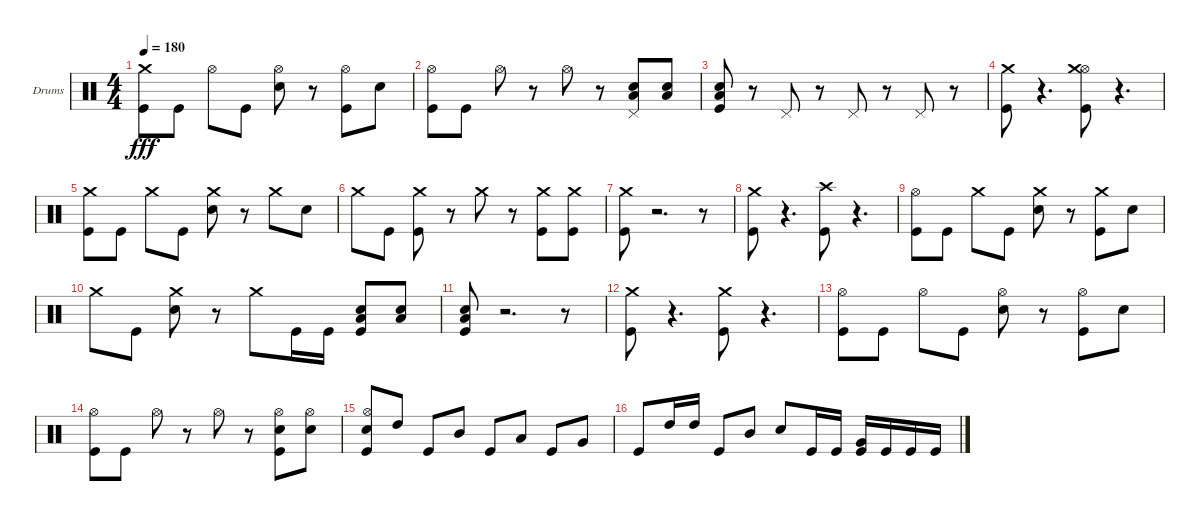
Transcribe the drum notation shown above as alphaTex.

\bracketExtendMode groupsimilarinstruments
\firstSystemTrackNameOrientation horizontal
\otherSystemsTrackNameOrientation horizontal
\track ("Drumkit" "Drums") {instrument percussion}
\staff {score}
\articulation defaults
\ts (4 4)
\tempo 180
\clef neutral
\ks c
("Kick (hit)" "Crash medium (hit)").8{dy fff} "Kick (hit)".8 "Hi-Hat (open)".8 "Kick (hit)".8 ("Snare (hit) 2" "Hi-Hat (open)").8 r.8 ("Kick (hit)" "Hi-Hat (open)").8 "Snare (hit) 2".8 |
("Kick (hit)" "Hi-Hat (open)").8 "Kick (hit)".8 "Hi-Hat (open)".8 r.8 "Hi-Hat (open)".8 r.8 ("Snare (hit) 2" "Low Tom (hit)" "Pedal Hi-Hat (hit)").8 ("Snare (hit) 2" "Low Tom (hit)").8 |
("Snare (hit) 2" "Kick (hit)" "Low Tom (hit)").8 r.8 "Pedal Hi-Hat (hit)".8 r.8 "Pedal Hi-Hat (hit)".8 r.8 "Pedal Hi-Hat (hit)".8 r.8 |
("Kick (hit)" "Crash medium (hit)").8 r.4{d} ("Kick (hit)" "Hi-Hat (open)" "Crash medium (hit)").8 r.4{d} |
("Kick (hit)" "Crash medium (hit)").8 "Kick (hit)".8 "Crash medium (hit)".8 "Kick (hit)".8 ("Snare (hit) 2" "Crash medium (hit)").8 r.8 "Crash medium (hit)".8 "Snare (hit) 2".8 |
"Crash medium (hit)".8 "Kick (hit)".8 ("Kick (hit)" "Crash medium (hit)").8 r.8 "Crash medium (hit)".8 r.8 ("Kick (hit)" "Crash medium (hit)").8 ("Kick (hit)" "Crash medium (hit)").8 |
("Kick (hit)" "Crash medium (hit)").8 r.2{d} r.8 |
("Kick (hit)" "Crash medium (hit)").8 r.4{d} ("Kick (hit)" "Crash high (hit)").8 r.4{d} |
("Kick (hit)" "Hi-Hat (open)").8 "Kick (hit)".8 "Crash medium (hit)".8 "Kick (hit)".8 ("Snare (hit) 2" "Crash medium (hit)").8 r.8 ("Kick (hit)" "Crash medium (hit)").8 "Snare (hit) 2".8 |
"Crash medium (hit)".8 "Kick (hit)".8 ("Snare (hit) 2" "Crash medium (hit)").8 r.8 "Crash medium (hit)".8 "Kick (hit)".16 "Kick (hit)".16 ("Kick (hit)" "Low Tom (hit)" "Snare (hit) 2").8 ("Snare (hit) 2" "Low Tom (hit)").8 |
("Kick (hit)" "Snare (hit) 2" "Low Tom (hit)").8 r.2{d} r.8 |
("Kick (hit)" "Crash medium (hit)").8 r.4{d} ("Kick (hit)" "Crash medium (hit)").8 r.4{d} |
("Kick (hit)" "Hi-Hat (open)").8 "Kick (hit)".8 "Hi-Hat (open)".8 "Kick (hit)".8 ("Snare (hit) 2" "Hi-Hat (open)").8 r.8 ("Hi-Hat (open)" "Kick (hit)").8 "Snare (hit) 2".8 |
("Kick (hit)" "Hi-Hat (open)").8 "Kick (hit)".8 "Hi-Hat (open)".8 r.8 "Hi-Hat (open)".8 r.8 ("Snare (hit) 2" "Kick (hit)" "Hi-Hat (open)").8 ("Snare (hit) 2" "Hi-Hat (open)").8 |
("Kick (hit)" "Snare (hit) 2" "Hi-Hat (open)").8 "High Tom (hit)".8 "Kick (hit)".8 "Mid Tom (hit)".8 "Kick (hit)".8 "Low Tom (hit)".8 "Kick (hit)".8 "Very Low Tom (hit)".8 |
"Kick (hit)".8 "High Tom (hit)".16 "High Tom (hit)".16 "Kick (hit)".8 "Mid Tom (hit)".8 "Snare (hit) 2".8 "Kick (hit)".16 "Kick (hit)".16 ("Very Low Tom (hit)" "Kick (hit)").16 "Kick (hit)".16 "Kick (hit)".16 "Kick (hit)".16
